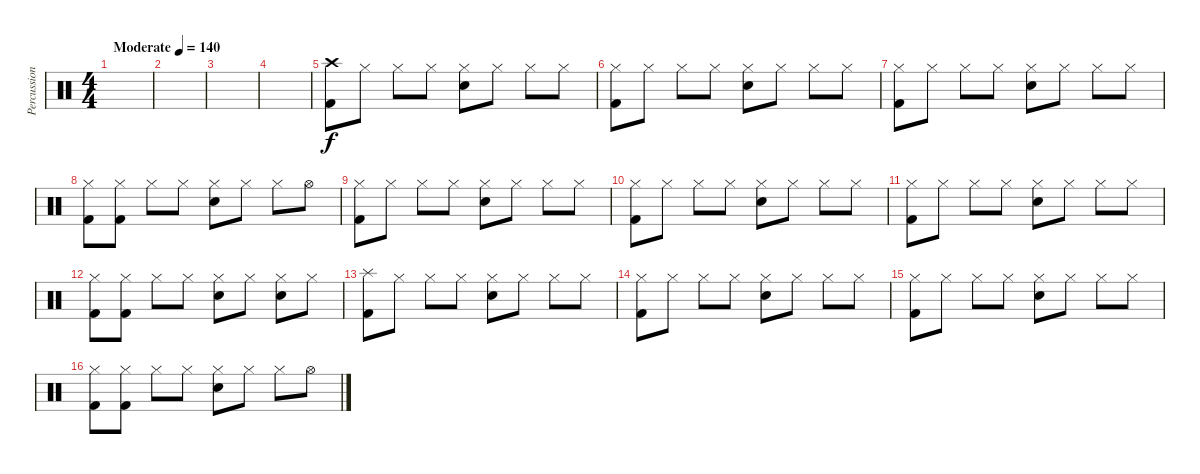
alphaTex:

\track ("Percussion" "Percussion") {instrument percussion}
\staff {score}
\articulation defaults
\ts (4 4)
\tempo (140 "Moderate")
\clef neutral
\ks c
|
|
|
|
("Kick (hit) 2" "Crash high (hit)").8 "Hi-Hat (closed)".8 "Hi-Hat (closed)".8 "Hi-Hat (closed)".8 ("Electric Snare (hit)" "Hi-Hat (closed)").8 "Hi-Hat (closed)".8 "Hi-Hat (closed)".8 "Hi-Hat (closed)".8 |
("Kick (hit) 2" "Hi-Hat (closed)").8 "Hi-Hat (closed)".8 "Hi-Hat (closed)".8 "Hi-Hat (closed)".8 ("Electric Snare (hit)" "Hi-Hat (closed)").8 "Hi-Hat (closed)".8 "Hi-Hat (closed)".8 "Hi-Hat (closed)".8 |
("Kick (hit) 2" "Hi-Hat (closed)").8 "Hi-Hat (closed)".8 "Hi-Hat (closed)".8 "Hi-Hat (closed)".8 ("Electric Snare (hit)" "Hi-Hat (closed)").8 "Hi-Hat (closed)".8 "Hi-Hat (closed)".8 "Hi-Hat (closed)".8 |
("Kick (hit) 2" "Hi-Hat (closed)").8 ("Hi-Hat (closed)" "Kick (hit) 2").8 "Hi-Hat (closed)".8 "Hi-Hat (closed)".8 ("Electric Snare (hit)" "Hi-Hat (closed)").8 "Hi-Hat (closed)".8 "Hi-Hat (closed)".8 "Hi-Hat (open)".8 |
("Kick (hit) 2" "Hi-Hat (closed)").8 "Hi-Hat (closed)".8 "Hi-Hat (closed)".8 "Hi-Hat (closed)".8 ("Electric Snare (hit)" "Hi-Hat (closed)").8 "Hi-Hat (closed)".8 "Hi-Hat (closed)".8 "Hi-Hat (closed)".8 |
("Kick (hit) 2" "Hi-Hat (closed)").8 "Hi-Hat (closed)".8 "Hi-Hat (closed)".8 "Hi-Hat (closed)".8 ("Electric Snare (hit)" "Hi-Hat (closed)").8 "Hi-Hat (closed)".8 "Hi-Hat (closed)".8 "Hi-Hat (closed)".8 |
("Kick (hit) 2" "Hi-Hat (closed)").8 "Hi-Hat (closed)".8 "Hi-Hat (closed)".8 "Hi-Hat (closed)".8 ("Electric Snare (hit)" "Hi-Hat (closed)").8 "Hi-Hat (closed)".8 "Hi-Hat (closed)".8 "Hi-Hat (closed)".8 |
("Kick (hit) 2" "Hi-Hat (closed)").8 ("Hi-Hat (closed)" "Kick (hit) 2").8 "Hi-Hat (closed)".8 "Hi-Hat (closed)".8 ("Electric Snare (hit)" "Hi-Hat (closed)").8 "Hi-Hat (closed)".8 ("Hi-Hat (closed)" "Electric Snare (hit)").8 "Hi-Hat (closed)".8 |
("Kick (hit) 2" "Splash (hit)").8 "Hi-Hat (closed)".8 "Hi-Hat (closed)".8 "Hi-Hat (closed)".8 ("Electric Snare (hit)" "Hi-Hat (closed)").8 "Hi-Hat (closed)".8 "Hi-Hat (closed)".8 "Hi-Hat (closed)".8 |
("Kick (hit) 2" "Hi-Hat (closed)").8 "Hi-Hat (closed)".8 "Hi-Hat (closed)".8 "Hi-Hat (closed)".8 ("Electric Snare (hit)" "Hi-Hat (closed)").8 "Hi-Hat (closed)".8 "Hi-Hat (closed)".8 "Hi-Hat (closed)".8 |
("Kick (hit) 2" "Hi-Hat (closed)").8 "Hi-Hat (closed)".8 "Hi-Hat (closed)".8 "Hi-Hat (closed)".8 ("Electric Snare (hit)" "Hi-Hat (closed)").8 "Hi-Hat (closed)".8 "Hi-Hat (closed)".8 "Hi-Hat (closed)".8 |
("Kick (hit) 2" "Hi-Hat (closed)").8 ("Hi-Hat (closed)" "Kick (hit) 2").8 "Hi-Hat (closed)".8 "Hi-Hat (closed)".8 ("Electric Snare (hit)" "Hi-Hat (closed)").8 "Hi-Hat (closed)".8 "Hi-Hat (closed)".8 "Hi-Hat (open)".8
